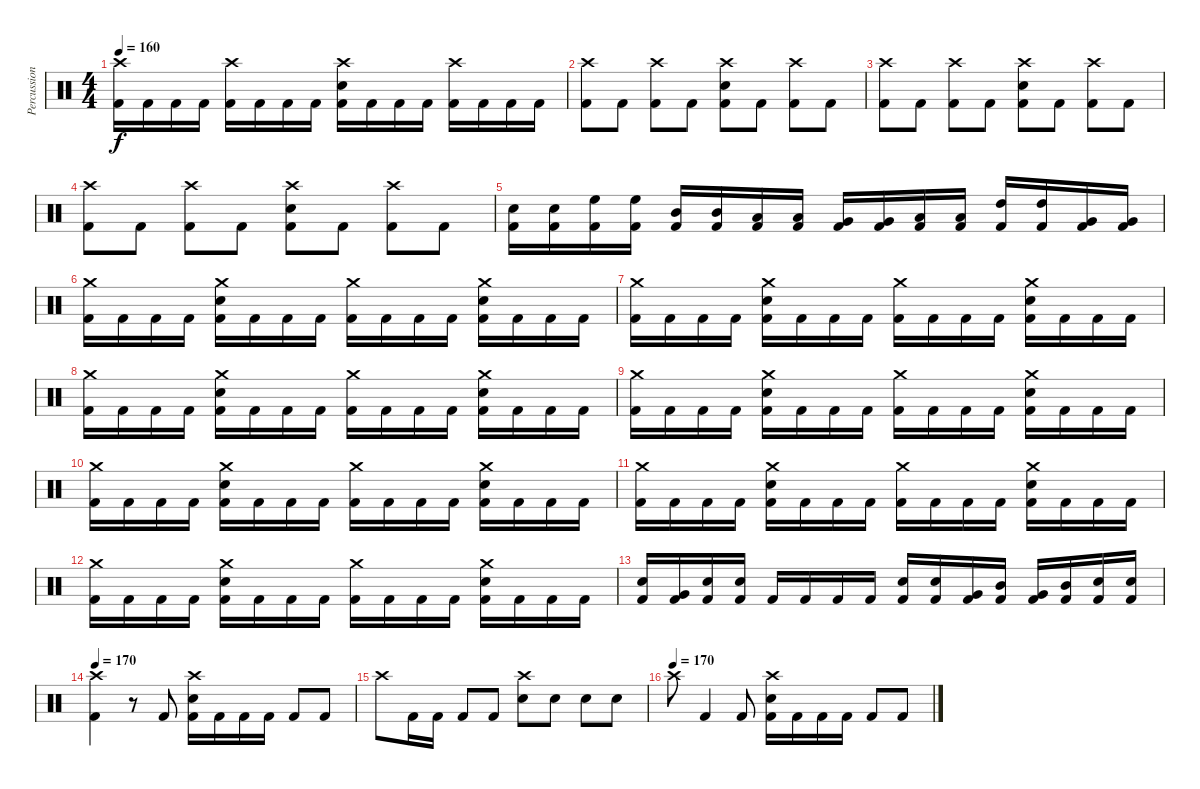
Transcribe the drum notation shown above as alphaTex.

\track ("Percussion" "Percussion") {instrument percussion}
\staff {score}
\articulation defaults
\ts (4 4)
\tempo 160
\clef neutral
\ks c
("Crash high (hit)" "Kick (hit) 2").16{dy f} "Kick (hit) 2".16 "Kick (hit) 2".16 "Kick (hit) 2".16 ("Crash high (hit)" "Kick (hit) 2").16 "Kick (hit) 2".16 "Kick (hit) 2".16 "Kick (hit) 2".16 ("Crash high (hit)" "Electric Snare (hit)" "Kick (hit) 2").16 "Kick (hit) 2".16 "Kick (hit) 2".16 "Kick (hit) 2".16 ("Crash high (hit)" "Kick (hit) 2").16 "Kick (hit) 2".16 "Kick (hit) 2".16 "Kick (hit) 2".16 |
("Crash high (hit)" "Kick (hit) 2").8 "Kick (hit) 2".8 ("Crash high (hit)" "Kick (hit) 2").8 "Kick (hit) 2".8 ("Crash high (hit)" "Electric Snare (hit)" "Kick (hit) 2").8 "Kick (hit) 2".8 ("Crash high (hit)" "Kick (hit) 2").8 "Kick (hit) 2".8 |
("Crash high (hit)" "Kick (hit) 2").8 "Kick (hit) 2".8 ("Crash high (hit)" "Kick (hit) 2").8 "Kick (hit) 2".8 ("Crash high (hit)" "Electric Snare (hit)" "Kick (hit) 2").8 "Kick (hit) 2".8 ("Crash high (hit)" "Kick (hit) 2").8 "Kick (hit) 2".8 |
("Crash high (hit)" "Kick (hit) 2").8 "Kick (hit) 2".8 ("Crash high (hit)" "Kick (hit) 2").8 "Kick (hit) 2".8 ("Crash high (hit)" "Electric Snare (hit)" "Kick (hit) 2").8 "Kick (hit) 2".8 ("Crash high (hit)" "Kick (hit) 2").8 "Kick (hit) 2".8 |
("Electric Snare (hit)" "Kick (hit) 2").16 ("Electric Snare (hit)" "Kick (hit) 2").16 ("High Floor Tom (hit)" "Kick (hit) 2").16 ("High Floor Tom (hit)" "Kick (hit) 2").16 ("Mid Tom (hit)" "Kick (hit) 2").16 ("Mid Tom (hit)" "Kick (hit) 2").16 ("Low Tom (hit)" "Kick (hit) 2").16 ("Low Tom (hit)" "Kick (hit) 2").16 ("Very Low Tom (hit)" "Kick (hit) 2").16 ("Very Low Tom (hit)" "Kick (hit) 2").16 ("Low Floor Tom (hit)" "Kick (hit) 2").16 ("Low Floor Tom (hit)" "Kick (hit) 2").16 ("High Tom (hit)" "Kick (hit) 2").16 ("High Tom (hit)" "Kick (hit) 2").16 ("Very Low Tom (hit)" "Kick (hit) 2").16 ("Very Low Tom (hit)" "Kick (hit) 2").16 |
("Crash medium (hit)" "Kick (hit) 2").16 "Kick (hit) 2".16 "Kick (hit) 2".16 "Kick (hit) 2".16 ("Crash medium (hit)" "Electric Snare (hit)" "Kick (hit) 2").16 "Kick (hit) 2".16 "Kick (hit) 2".16 "Kick (hit) 2".16 ("Crash medium (hit)" "Kick (hit) 2").16 "Kick (hit) 2".16 "Kick (hit) 2".16 "Kick (hit) 2".16 ("Crash medium (hit)" "Electric Snare (hit)" "Kick (hit) 2").16 "Kick (hit) 2".16 "Kick (hit) 2".16 "Kick (hit) 2".16 |
("Crash medium (hit)" "Kick (hit) 2").16 "Kick (hit) 2".16 "Kick (hit) 2".16 "Kick (hit) 2".16 ("Crash medium (hit)" "Electric Snare (hit)" "Kick (hit) 2").16 "Kick (hit) 2".16 "Kick (hit) 2".16 "Kick (hit) 2".16 ("Crash medium (hit)" "Kick (hit) 2").16 "Kick (hit) 2".16 "Kick (hit) 2".16 "Kick (hit) 2".16 ("Crash medium (hit)" "Electric Snare (hit)" "Kick (hit) 2").16 "Kick (hit) 2".16 "Kick (hit) 2".16 "Kick (hit) 2".16 |
("Crash medium (hit)" "Kick (hit) 2").16 "Kick (hit) 2".16 "Kick (hit) 2".16 "Kick (hit) 2".16 ("Crash medium (hit)" "Electric Snare (hit)" "Kick (hit) 2").16 "Kick (hit) 2".16 "Kick (hit) 2".16 "Kick (hit) 2".16 ("Crash medium (hit)" "Kick (hit) 2").16 "Kick (hit) 2".16 "Kick (hit) 2".16 "Kick (hit) 2".16 ("Crash medium (hit)" "Electric Snare (hit)" "Kick (hit) 2").16 "Kick (hit) 2".16 "Kick (hit) 2".16 "Kick (hit) 2".16 |
("Crash medium (hit)" "Kick (hit) 2").16 "Kick (hit) 2".16 "Kick (hit) 2".16 "Kick (hit) 2".16 ("Crash medium (hit)" "Electric Snare (hit)" "Kick (hit) 2").16 "Kick (hit) 2".16 "Kick (hit) 2".16 "Kick (hit) 2".16 ("Crash medium (hit)" "Kick (hit) 2").16 "Kick (hit) 2".16 "Kick (hit) 2".16 "Kick (hit) 2".16 ("Crash medium (hit)" "Electric Snare (hit)" "Kick (hit) 2").16 "Kick (hit) 2".16 "Kick (hit) 2".16 "Kick (hit) 2".16 |
("Crash medium (hit)" "Kick (hit) 2").16 "Kick (hit) 2".16 "Kick (hit) 2".16 "Kick (hit) 2".16 ("Crash medium (hit)" "Electric Snare (hit)" "Kick (hit) 2").16 "Kick (hit) 2".16 "Kick (hit) 2".16 "Kick (hit) 2".16 ("Crash medium (hit)" "Kick (hit) 2").16 "Kick (hit) 2".16 "Kick (hit) 2".16 "Kick (hit) 2".16 ("Crash medium (hit)" "Electric Snare (hit)" "Kick (hit) 2").16 "Kick (hit) 2".16 "Kick (hit) 2".16 "Kick (hit) 2".16 |
("Crash medium (hit)" "Kick (hit) 2").16 "Kick (hit) 2".16 "Kick (hit) 2".16 "Kick (hit) 2".16 ("Crash medium (hit)" "Electric Snare (hit)" "Kick (hit) 2").16 "Kick (hit) 2".16 "Kick (hit) 2".16 "Kick (hit) 2".16 ("Crash medium (hit)" "Kick (hit) 2").16 "Kick (hit) 2".16 "Kick (hit) 2".16 "Kick (hit) 2".16 ("Crash medium (hit)" "Electric Snare (hit)" "Kick (hit) 2").16 "Kick (hit) 2".16 "Kick (hit) 2".16 "Kick (hit) 2".16 |
("Crash medium (hit)" "Kick (hit) 2").16 "Kick (hit) 2".16 "Kick (hit) 2".16 "Kick (hit) 2".16 ("Crash medium (hit)" "Electric Snare (hit)" "Kick (hit) 2").16 "Kick (hit) 2".16 "Kick (hit) 2".16 "Kick (hit) 2".16 ("Crash medium (hit)" "Kick (hit) 2").16 "Kick (hit) 2".16 "Kick (hit) 2".16 "Kick (hit) 2".16 ("Crash medium (hit)" "Electric Snare (hit)" "Kick (hit) 2").16 "Kick (hit) 2".16 "Kick (hit) 2".16 "Kick (hit) 2".16 |
("Electric Snare (hit)" "Kick (hit) 2").16 ("Very Low Tom (hit)" "Kick (hit) 2").16 ("Electric Snare (hit)" "Kick (hit) 2").16 ("Electric Snare (hit)" "Kick (hit) 2").16 "Kick (hit) 2".16 "Kick (hit) 2".16 "Kick (hit) 2".16 "Kick (hit) 2".16 ("Electric Snare (hit)" "Kick (hit) 2").16 ("Electric Snare (hit)" "Kick (hit) 2").16 ("Very Low Tom (hit)" "Kick (hit) 2").16 ("Mid Tom (hit)" "Kick (hit) 2").16 ("Very Low Tom (hit)" "Kick (hit) 2").16 ("Mid Tom (hit)" "Kick (hit) 2").16 ("Electric Snare (hit)" "Kick (hit) 2").16 ("Electric Snare (hit)" "Kick (hit) 2").16 |
\tempo 170
("Crash high (hit)" "Kick (hit) 2").4 r.8 "Kick (hit) 2".8 ("Crash high (hit)" "Electric Snare (hit)" "Kick (hit) 2").16 "Kick (hit) 2".16 "Kick (hit) 2".16 "Kick (hit) 2".16 "Kick (hit) 2".8 "Kick (hit) 2".8 |
"Crash high (hit)".8 "Kick (hit) 2".16 "Kick (hit) 2".16 "Kick (hit) 2".8 "Kick (hit) 2".8 ("Crash high (hit)" "Electric Snare (hit)").8 "Electric Snare (hit)".8 "Electric Snare (hit)".8 "Electric Snare (hit)".8 |
\tempo (170)
"Crash high (hit)".8 "Kick (hit) 2".4 "Kick (hit) 2".8 ("Crash high (hit)" "Electric Snare (hit)" "Kick (hit) 2").16 "Kick (hit) 2".16 "Kick (hit) 2".16 "Kick (hit) 2".16 "Kick (hit) 2".8 "Kick (hit) 2".8
